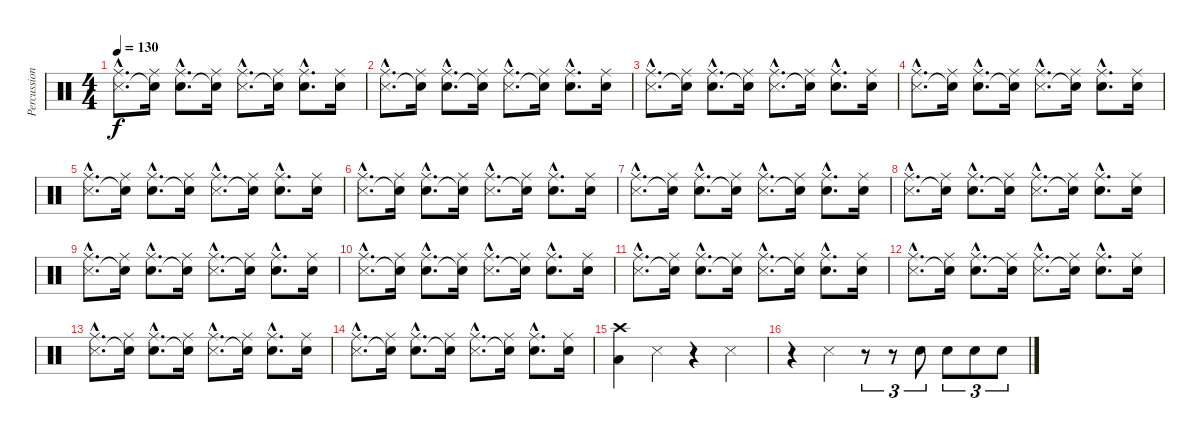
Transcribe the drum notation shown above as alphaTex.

\track ("Percussion" "Percussion") {instrument percussion}
\staff {score}
\articulation defaults
\ts (4 4)
\tempo 130
\clef neutral
\ks c
("Ride (middle)"{hac} "Snare (side stick) 3"{hac}).8{d dy f} ("Ride (middle)" "Snare (hit)"{t}).16 ("Ride (middle)"{hac} "Electric Snare (hit)"{hac}).8{d} ("Ride (middle)" "Snare (hit)"{t}).16 ("Ride (middle)"{hac} "Snare (side stick) 3"{hac}).8{d} ("Ride (middle)" "Snare (hit)"{t}).16 ("Ride (middle)"{hac} "Electric Snare (hit)"{hac}).8{d} ("Ride (middle)" "Electric Snare (hit)").16 |
("Ride (middle)"{hac} "Snare (side stick) 3"{hac}).8{d} ("Ride (middle)" "Snare (hit)"{t}).16 ("Ride (middle)"{hac} "Electric Snare (hit)"{hac}).8{d} ("Ride (middle)" "Snare (hit)"{t}).16 ("Ride (middle)"{hac} "Snare (side stick) 3"{hac}).8{d} ("Ride (middle)" "Snare (hit)"{t}).16 ("Ride (middle)"{hac} "Electric Snare (hit)"{hac}).8{d} ("Ride (middle)" "Electric Snare (hit)").16 |
("Ride (middle)"{hac} "Snare (side stick) 3"{hac}).8{d} ("Ride (middle)" "Snare (hit)"{t}).16 ("Ride (middle)"{hac} "Electric Snare (hit)"{hac}).8{d} ("Ride (middle)" "Snare (hit)"{t}).16 ("Ride (middle)"{hac} "Snare (side stick) 3"{hac}).8{d} ("Ride (middle)" "Snare (hit)"{t}).16 ("Ride (middle)"{hac} "Electric Snare (hit)"{hac}).8{d} ("Ride (middle)" "Electric Snare (hit)").16 |
("Ride (middle)"{hac} "Snare (side stick) 3"{hac}).8{d} ("Ride (middle)" "Snare (hit)"{t}).16 ("Ride (middle)"{hac} "Electric Snare (hit)"{hac}).8{d} ("Ride (middle)" "Snare (hit)"{t}).16 ("Ride (middle)"{hac} "Snare (side stick) 3"{hac}).8{d} ("Ride (middle)" "Snare (hit)"{t}).16 ("Ride (middle)"{hac} "Electric Snare (hit)"{hac}).8{d} ("Ride (middle)" "Electric Snare (hit)").16 |
("Ride (middle)"{hac} "Snare (side stick) 3"{hac}).8{d} ("Ride (middle)" "Snare (hit)"{t}).16 ("Ride (middle)"{hac} "Electric Snare (hit)"{hac}).8{d} ("Ride (middle)" "Snare (hit)"{t}).16 ("Ride (middle)"{hac} "Snare (side stick) 3"{hac}).8{d} ("Ride (middle)" "Snare (hit)"{t}).16 ("Ride (middle)"{hac} "Electric Snare (hit)"{hac}).8{d} ("Ride (middle)" "Electric Snare (hit)").16 |
("Ride (middle)"{hac} "Snare (side stick) 3"{hac}).8{d} ("Ride (middle)" "Snare (hit)"{t}).16 ("Ride (middle)"{hac} "Electric Snare (hit)"{hac}).8{d} ("Ride (middle)" "Snare (hit)"{t}).16 ("Ride (middle)"{hac} "Snare (side stick) 3"{hac}).8{d} ("Ride (middle)" "Snare (hit)"{t}).16 ("Ride (middle)"{hac} "Electric Snare (hit)"{hac}).8{d} ("Ride (middle)" "Electric Snare (hit)").16 |
("Ride (middle)"{hac} "Snare (side stick) 3"{hac}).8{d} ("Ride (middle)" "Snare (hit)"{t}).16 ("Ride (middle)"{hac} "Electric Snare (hit)"{hac}).8{d} ("Ride (middle)" "Snare (hit)"{t}).16 ("Ride (middle)"{hac} "Snare (side stick) 3"{hac}).8{d} ("Ride (middle)" "Snare (hit)"{t}).16 ("Ride (middle)"{hac} "Electric Snare (hit)"{hac}).8{d} ("Ride (middle)" "Electric Snare (hit)").16 |
("Ride (middle)"{hac} "Snare (side stick) 3"{hac}).8{d} ("Ride (middle)" "Snare (hit)"{t}).16 ("Ride (middle)"{hac} "Electric Snare (hit)"{hac}).8{d} ("Ride (middle)" "Snare (hit)"{t}).16 ("Ride (middle)"{hac} "Snare (side stick) 3"{hac}).8{d} ("Ride (middle)" "Snare (hit)"{t}).16 ("Ride (middle)"{hac} "Electric Snare (hit)"{hac}).8{d} ("Ride (middle)" "Electric Snare (hit)").16 |
("Ride (middle)"{hac} "Snare (side stick) 3"{hac}).8{d} ("Ride (middle)" "Snare (hit)"{t}).16 ("Ride (middle)"{hac} "Electric Snare (hit)"{hac}).8{d} ("Ride (middle)" "Snare (hit)"{t}).16 ("Ride (middle)"{hac} "Snare (side stick) 3"{hac}).8{d} ("Ride (middle)" "Snare (hit)"{t}).16 ("Ride (middle)"{hac} "Electric Snare (hit)"{hac}).8{d} ("Ride (middle)" "Electric Snare (hit)").16 |
("Ride (middle)"{hac} "Snare (side stick) 3"{hac}).8{d} ("Ride (middle)" "Snare (hit)"{t}).16 ("Ride (middle)"{hac} "Electric Snare (hit)"{hac}).8{d} ("Ride (middle)" "Snare (hit)"{t}).16 ("Ride (middle)"{hac} "Snare (side stick) 3"{hac}).8{d} ("Ride (middle)" "Snare (hit)"{t}).16 ("Ride (middle)"{hac} "Electric Snare (hit)"{hac}).8{d} ("Ride (middle)" "Electric Snare (hit)").16 |
("Ride (middle)"{hac} "Snare (side stick) 3"{hac}).8{d} ("Ride (middle)" "Snare (hit)"{t}).16 ("Ride (middle)"{hac} "Electric Snare (hit)"{hac}).8{d} ("Ride (middle)" "Snare (hit)"{t}).16 ("Ride (middle)"{hac} "Snare (side stick) 3"{hac}).8{d} ("Ride (middle)" "Snare (hit)"{t}).16 ("Ride (middle)"{hac} "Electric Snare (hit)"{hac}).8{d} ("Ride (middle)" "Electric Snare (hit)").16 |
("Ride (middle)"{hac} "Snare (side stick) 3"{hac}).8{d} ("Ride (middle)" "Snare (hit)"{t}).16 ("Ride (middle)"{hac} "Electric Snare (hit)"{hac}).8{d} ("Ride (middle)" "Snare (hit)"{t}).16 ("Ride (middle)"{hac} "Snare (side stick) 3"{hac}).8{d} ("Ride (middle)" "Snare (hit)"{t}).16 ("Ride (middle)"{hac} "Electric Snare (hit)"{hac}).8{d} ("Ride (middle)" "Electric Snare (hit)").16 |
("Ride (middle)"{hac} "Snare (side stick) 3"{hac}).8{d} ("Ride (middle)" "Snare (hit)"{t}).16 ("Ride (middle)"{hac} "Electric Snare (hit)"{hac}).8{d} ("Ride (middle)" "Snare (hit)"{t}).16 ("Ride (middle)"{hac} "Snare (side stick) 3"{hac}).8{d} ("Ride (middle)" "Snare (hit)"{t}).16 ("Ride (middle)"{hac} "Electric Snare (hit)"{hac}).8{d} ("Ride (middle)" "Electric Snare (hit)").16 |
("Ride (middle)"{hac} "Snare (side stick) 3"{hac}).8{d} ("Ride (middle)" "Snare (hit)"{t}).16 ("Ride (middle)"{hac} "Electric Snare (hit)"{hac}).8{d} ("Ride (middle)" "Snare (hit)"{t}).16 ("Ride (middle)"{hac} "Snare (side stick) 3"{hac}).8{d} ("Ride (middle)" "Snare (hit)"{t}).16 ("Ride (middle)"{hac} "Electric Snare (hit)"{hac}).8{d} ("Ride (middle)" "Electric Snare (hit)").16 |
("Crash high (hit)" "Low Tom (hit)").4 "Snare (side stick) 3".4 r.4 "Snare (side stick) 3".4 |
r.4 "Snare (side stick) 3".4 r.8{tu (3 2)} r.8{tu (3 2)} "Snare (hit) 2".8{tu (3 2)} "Electric Snare (hit)".8{tu (3 2)} "Electric Snare (hit)".8{tu (3 2)} "Electric Snare (hit)".8{tu (3 2)}
